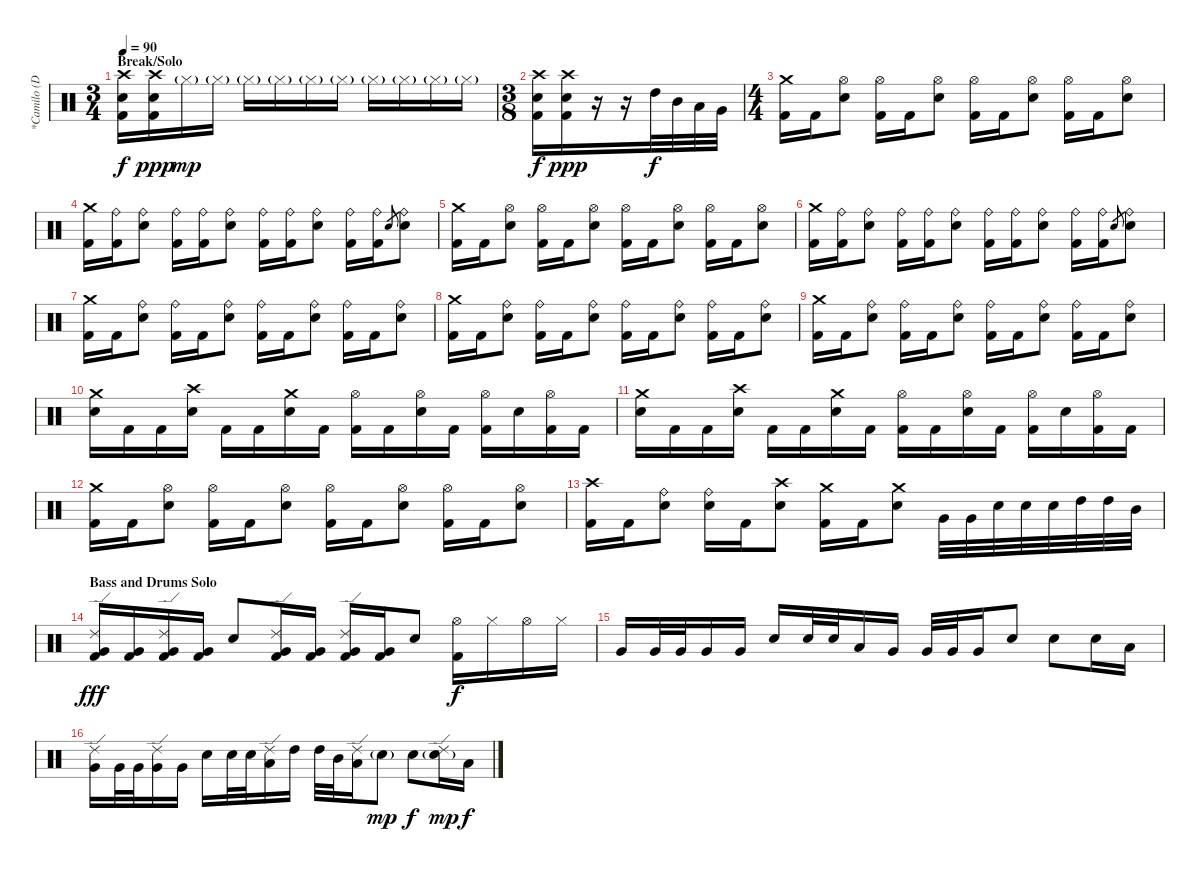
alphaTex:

\track ("*Camilo (Drums)" "*Camilo (D") {instrument percussion}
\staff {score}
\articulation defaults
\ts (3 4)
\section ("" "Break/Solo")
\tempo 90
\clef neutral
\ks c
("Crash high (hit)" "Electric Snare (hit)" "Kick (hit) 2").16{dy f} ("Crash high (hit)" "Electric Snare (hit)" "Kick (hit) 2").16{dy ppp} "Hi-Hat (closed)"{g}.16{dy mp} "Hi-Hat (closed)"{g}.16 "Hi-Hat (closed)"{g}.16 "Hi-Hat (closed)"{g}.16 "Hi-Hat (closed)"{g}.16 "Hi-Hat (closed)"{g}.16 "Hi-Hat (closed)"{g}.16 "Hi-Hat (closed)"{g}.16 "Hi-Hat (closed)"{g}.16 "Hi-Hat (closed)"{g}.16 |
\ts (3 8)
("Crash high (hit)" "Electric Snare (hit)" "Kick (hit) 2").16{dy f} ("Crash high (hit)" "Electric Snare (hit)" "Kick (hit) 2").16{dy ppp} r.16 r.16 "High Tom (hit)".32{dy f} "Mid Tom (hit)".32 "Low Tom (hit)".32 "Very Low Tom (hit)".32 |
\ts (4 4)
("Crash medium (hit)" "Kick (hit) 2").16 "Kick (hit) 2".16 ("Hi-Hat (open)" "Electric Snare (hit)").8 ("Hi-Hat (open)" "Kick (hit) 2").16 "Kick (hit) 2".16 ("Hi-Hat (open)" "Electric Snare (hit)").8 ("Hi-Hat (open)" "Kick (hit) 2").16 "Kick (hit) 2".16 ("Hi-Hat (open)" "Electric Snare (hit)").8 ("Hi-Hat (open)" "Kick (hit) 2").16 "Kick (hit) 2".16 ("Hi-Hat (open)" "Electric Snare (hit)").8 |
("Crash medium (hit)" "Kick (hit) 2").16 ("Ride (bell)" "Kick (hit) 2").16 ("Ride (bell)" "Electric Snare (hit)").8 ("Ride (bell)" "Kick (hit) 2").16 ("Ride (bell)" "Kick (hit) 2").16 ("Ride (bell)" "Electric Snare (hit)").8 ("Ride (bell)" "Kick (hit) 2").16 ("Ride (bell)" "Kick (hit) 2").16 ("Ride (bell)" "Electric Snare (hit)").8 ("Ride (bell)" "Kick (hit) 2").16 ("Ride (bell)" "Kick (hit) 2").16 "Electric Snare (hit)".8{gr} ("Ride (bell)" "Electric Snare (hit)").8 |
("Crash medium (hit)" "Kick (hit) 2").16 "Kick (hit) 2".16 ("Hi-Hat (open)" "Electric Snare (hit)").8 ("Hi-Hat (open)" "Kick (hit) 2").16 "Kick (hit) 2".16 ("Hi-Hat (open)" "Electric Snare (hit)").8 ("Hi-Hat (open)" "Kick (hit) 2").16 "Kick (hit) 2".16 ("Hi-Hat (open)" "Electric Snare (hit)").8 ("Hi-Hat (open)" "Kick (hit) 2").16 "Kick (hit) 2".16 ("Hi-Hat (open)" "Electric Snare (hit)").8 |
("Crash medium (hit)" "Kick (hit) 2").16 ("Ride (bell)" "Kick (hit) 2").16 ("Ride (bell)" "Electric Snare (hit)").8 ("Ride (bell)" "Kick (hit) 2").16 ("Ride (bell)" "Kick (hit) 2").16 ("Ride (bell)" "Electric Snare (hit)").8 ("Ride (bell)" "Kick (hit) 2").16 ("Ride (bell)" "Kick (hit) 2").16 ("Ride (bell)" "Electric Snare (hit)").8 ("Ride (bell)" "Kick (hit) 2").16 ("Ride (bell)" "Kick (hit) 2").16 "Electric Snare (hit)".8{gr} ("Ride (bell)" "Electric Snare (hit)").8 |
("Crash medium (hit)" "Kick (hit) 2").16 "Kick (hit) 2".16 ("Ride (bell)" "Electric Snare (hit)").8 ("Ride (bell)" "Kick (hit) 2").16 "Kick (hit) 2".16 ("Ride (bell)" "Electric Snare (hit)").8 ("Ride (bell)" "Kick (hit) 2").16 "Kick (hit) 2".16 ("Ride (bell)" "Electric Snare (hit)").8 ("Ride (bell)" "Kick (hit) 2").16 "Kick (hit) 2".16 ("Ride (bell)" "Electric Snare (hit)").8 |
("Crash medium (hit)" "Kick (hit) 2").16 "Kick (hit) 2".16 ("Ride (bell)" "Electric Snare (hit)").8 ("Ride (bell)" "Kick (hit) 2").16 "Kick (hit) 2".16 ("Ride (bell)" "Electric Snare (hit)").8 ("Ride (bell)" "Kick (hit) 2").16 "Kick (hit) 2".16 ("Ride (bell)" "Electric Snare (hit)").8 ("Ride (bell)" "Kick (hit) 2").16 "Kick (hit) 2".16 ("Ride (bell)" "Electric Snare (hit)").8 |
("Crash medium (hit)" "Kick (hit) 2").16 "Kick (hit) 2".16 ("Ride (bell)" "Electric Snare (hit)").8 ("Ride (bell)" "Kick (hit) 2").16 "Kick (hit) 2".16 ("Ride (bell)" "Electric Snare (hit)").8 ("Ride (bell)" "Kick (hit) 2").16 "Kick (hit) 2".16 ("Ride (bell)" "Electric Snare (hit)").8 ("Ride (bell)" "Kick (hit) 2").16 "Kick (hit) 2".16 ("Ride (bell)" "Electric Snare (hit)").8 |
("Crash medium (hit)" "Electric Snare (hit)").16 "Kick (hit) 2".16 "Kick (hit) 2".16 ("Crash high (hit)" "Electric Snare (hit)").16 "Kick (hit) 2".16 "Kick (hit) 2".16 ("Crash medium (hit)" "Electric Snare (hit)").16 "Kick (hit) 2".16 ("Hi-Hat (open)" "Kick (hit) 2").16 "Kick (hit) 2".16 ("Hi-Hat (open)" "Electric Snare (hit)").16 "Kick (hit) 2".16 ("Hi-Hat (open)" "Kick (hit) 2").16 "Electric Snare (hit)".16 ("Hi-Hat (open)" "Kick (hit) 2").16 "Kick (hit) 2".16 |
("Crash medium (hit)" "Electric Snare (hit)").16 "Kick (hit) 2".16 "Kick (hit) 2".16 ("Crash high (hit)" "Electric Snare (hit)").16 "Kick (hit) 2".16 "Kick (hit) 2".16 ("Crash medium (hit)" "Electric Snare (hit)").16 "Kick (hit) 2".16 ("Hi-Hat (open)" "Kick (hit) 2").16 "Kick (hit) 2".16 ("Hi-Hat (open)" "Electric Snare (hit)").16 "Kick (hit) 2".16 ("Hi-Hat (open)" "Kick (hit) 2").16 "Electric Snare (hit)".16 ("Hi-Hat (open)" "Kick (hit) 2").16 "Kick (hit) 2".16 |
("Crash medium (hit)" "Kick (hit) 2").16 "Kick (hit) 2".16 ("Hi-Hat (open)" "Electric Snare (hit)").8 ("Hi-Hat (open)" "Kick (hit) 2").16 "Kick (hit) 2".16 ("Hi-Hat (open)" "Electric Snare (hit)").8 ("Hi-Hat (open)" "Kick (hit) 2").16 "Kick (hit) 2".16 ("Hi-Hat (open)" "Electric Snare (hit)").8 ("Hi-Hat (open)" "Kick (hit) 2").16 "Kick (hit) 2".16 ("Hi-Hat (open)" "Electric Snare (hit)").8 |
("Crash high (hit)" "Kick (hit) 2").16 "Kick (hit) 2".16 ("Ride (bell)" "Electric Snare (hit)").8 ("Ride (bell)" "Electric Snare (hit)").16 "Kick (hit) 2".16 ("Crash high (hit)" "Electric Snare (hit)").8 ("Crash medium (hit)" "Kick (hit) 2").16 "Kick (hit) 2".16 ("Crash medium (hit)" "Electric Snare (hit)").8 "Very Low Tom (hit)".32 "Very Low Tom (hit)".32 "Electric Snare (hit)".32 "Electric Snare (hit)".32 "Electric Snare (hit)".32 "High Tom (hit)".32 "High Tom (hit)".32 "Mid Tom (hit)".32 |
\section ("" "Bass and Drums Solo")
("Ride (edge) 2" "Very Low Tom (hit)" "Kick (hit) 2").16{dy fff} ("Very Low Tom (hit)" "Kick (hit) 2").16 ("Ride (edge) 2" "Very Low Tom (hit)" "Kick (hit) 2").16 ("Very Low Tom (hit)" "Kick (hit) 2").16 "Electric Snare (hit)".8 ("Ride (edge) 2" "Very Low Tom (hit)" "Kick (hit) 2").16 ("Very Low Tom (hit)" "Kick (hit) 2").16 ("Ride (edge) 2" "Very Low Tom (hit)" "Kick (hit) 2").16 ("Very Low Tom (hit)" "Kick (hit) 2").16 "Electric Snare (hit)".8 ("Hi-Hat (open)" "Kick (hit) 2").16{dy f} "Hi-Hat (closed)".16 "Hi-Hat (open)".16 "Hi-Hat (closed)".16 |
"Very Low Tom (hit)".16 "Very Low Tom (hit)".32 "Very Low Tom (hit)".32 "Very Low Tom (hit)".16 "Very Low Tom (hit)".16 "Electric Snare (hit)".16 "Electric Snare (hit)".32 "Electric Snare (hit)".32 "Low Tom (hit)".16 "Very Low Tom (hit)".16 "Very Low Tom (hit)".32 "Very Low Tom (hit)".32 "Very Low Tom (hit)".16 "Electric Snare (hit)".8 "Electric Snare (hit)".8 "Electric Snare (hit)".16 "Low Tom (hit)".16 |
("Ride (edge) 2" "Very Low Tom (hit)").16 "Very Low Tom (hit)".32 "Very Low Tom (hit)".32 ("Ride (edge) 2" "Very Low Tom (hit)").16 "Very Low Tom (hit)".16 "Electric Snare (hit)".16 "Electric Snare (hit)".32 "Electric Snare (hit)".32 ("Ride (edge) 2" "Low Tom (hit)").16 "High Tom (hit)".16 "High Tom (hit)".32 "Mid Tom (hit)".32 ("Ride (edge) 2" "Low Tom (hit)").16 "Electric Snare (hit)"{g}.8{dy mp} "Electric Snare (hit)".8{dy f} ("Ride (edge) 2" "Electric Snare (hit)"{g}).16{dy mp} "Low Tom (hit)".16{dy f}
